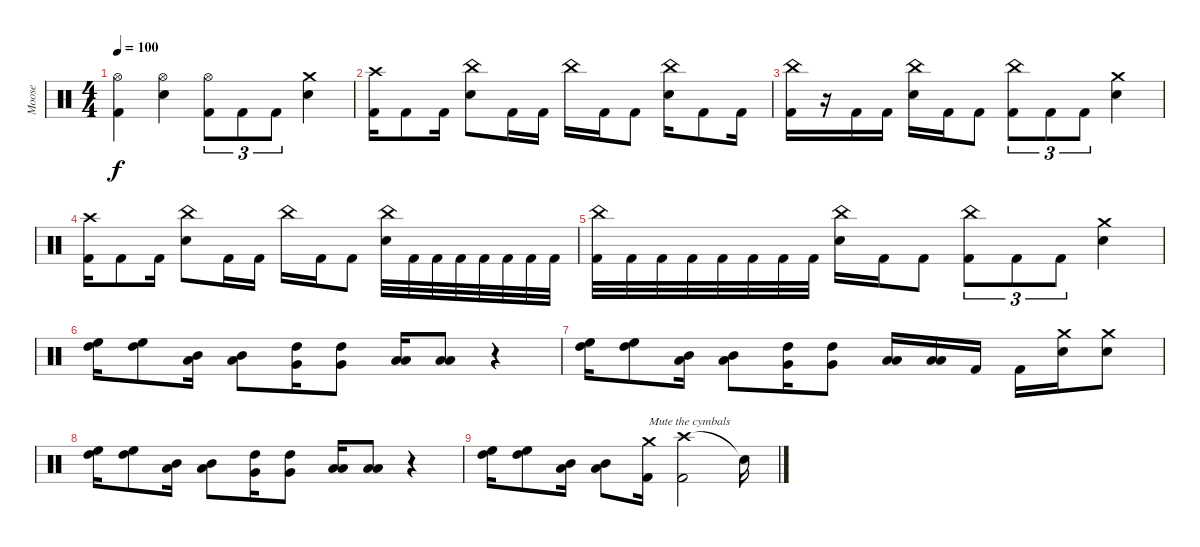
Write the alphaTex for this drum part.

\track ("Moose" "Moose") {instrument percussion}
\staff {score}
\articulation defaults
\ts (4 4)
\tempo 100
\clef neutral
\ks c
("Hi-Hat (open)" "Kick (hit) 2").4{dy f} ("Hi-Hat (open)" "Electric Snare (hit)").4 ("Hi-Hat (open)" "Kick (hit) 2").8{tu (3 2)} "Kick (hit) 2".8{tu (3 2)} "Kick (hit) 2".8{tu (3 2)} ("Crash medium (hit)" "Electric Snare (hit)").4 |
("Crash high (hit)" "Kick (hit) 2").16 "Kick (hit) 2".8 "Kick (hit) 2".16 ("China (hit)" "Electric Snare (hit)").8 "Kick (hit) 2".16 "Kick (hit) 2".16 "China (hit)".16 "Kick (hit) 2".16 "Kick (hit) 2".8 ("China (hit)" "Electric Snare (hit)").16 "Kick (hit) 2".8 "Kick (hit) 2".16 |
("China (hit)" "Kick (hit) 2").16 r.16 "Kick (hit) 2".16 "Kick (hit) 2".16 ("China (hit)" "Electric Snare (hit)").16 "Kick (hit) 2".16 "Kick (hit) 2".8 ("China (hit)" "Kick (hit) 2").8{tu (3 2)} "Kick (hit) 2".8{tu (3 2)} "Kick (hit) 2".8{tu (3 2)} ("Crash medium (hit)" "Electric Snare (hit)").4 |
("Crash high (hit)" "Kick (hit) 2").16 "Kick (hit) 2".8 "Kick (hit) 2".16 ("China (hit)" "Electric Snare (hit)").8 "Kick (hit) 2".16 "Kick (hit) 2".16 "China (hit)".16 "Kick (hit) 2".16 "Kick (hit) 2".8 ("China (hit)" "Electric Snare (hit)").32 "Kick (hit) 2".32 "Kick (hit) 2".32 "Kick (hit) 2".32 "Kick (hit) 2".32 "Kick (hit) 2".32 "Kick (hit) 2".32 "Kick (hit) 2".32 |
("China (hit)" "Kick (hit) 2").32 "Kick (hit) 2".32 "Kick (hit) 2".32 "Kick (hit) 2".32 "Kick (hit) 2".32 "Kick (hit) 2".32 "Kick (hit) 2".32 "Kick (hit) 2".32 ("China (hit)" "Electric Snare (hit)").16 "Kick (hit) 2".16 "Kick (hit) 2".8 ("China (hit)" "Kick (hit) 2").8{tu (3 2)} "Kick (hit) 2".8{tu (3 2)} "Kick (hit) 2".8{tu (3 2)} ("Crash medium (hit)" "Electric Snare (hit)").4 |
("High Floor Tom (hit)" "High Tom (hit)").16 ("High Floor Tom (hit)" "High Tom (hit)").8 ("Mid Tom (hit)" "Low Tom (hit)").16 ("Mid Tom (hit)" "Low Tom (hit)").8 ("High Tom (hit)" "Very Low Tom (hit)").16 ("High Tom (hit)" "Very Low Tom (hit)").8 ("Low Tom (hit)" "Low Floor Tom (hit)").16 ("Low Tom (hit)" "Low Floor Tom (hit)").8 r.4 |
("High Floor Tom (hit)" "High Tom (hit)").16 ("High Floor Tom (hit)" "High Tom (hit)").8 ("Mid Tom (hit)" "Low Tom (hit)").16 ("Mid Tom (hit)" "Low Tom (hit)").8 ("High Tom (hit)" "Very Low Tom (hit)").16 ("High Tom (hit)" "Very Low Tom (hit)").8 ("Low Tom (hit)" "Low Floor Tom (hit)").16 ("Low Tom (hit)" "Low Floor Tom (hit)").16 "Kick (hit) 2".16 "Kick (hit) 2".16 ("Crash medium (hit)" "Electric Snare (hit)").16 ("Crash medium (hit)" "Electric Snare (hit)").8 |
("High Floor Tom (hit)" "High Tom (hit)").16 ("High Floor Tom (hit)" "High Tom (hit)").8 ("Mid Tom (hit)" "Low Tom (hit)").16 ("Mid Tom (hit)" "Low Tom (hit)").8 ("High Tom (hit)" "Very Low Tom (hit)").16 ("High Tom (hit)" "Very Low Tom (hit)").8 ("Low Tom (hit)" "Low Floor Tom (hit)").16 ("Low Tom (hit)" "Low Floor Tom (hit)").8 r.4 |
("High Floor Tom (hit)" "High Tom (hit)").16 ("High Floor Tom (hit)" "High Tom (hit)").8 ("Mid Tom (hit)" "Low Tom (hit)").16 ("Mid Tom (hit)" "Low Tom (hit)").8 ("Crash medium (hit)" "Kick (hit) 2").16{txt "Mute the cymbals"} ("Crash high (hit)" "Kick (hit) 2").2 "Snare (hit)"{t}.16
